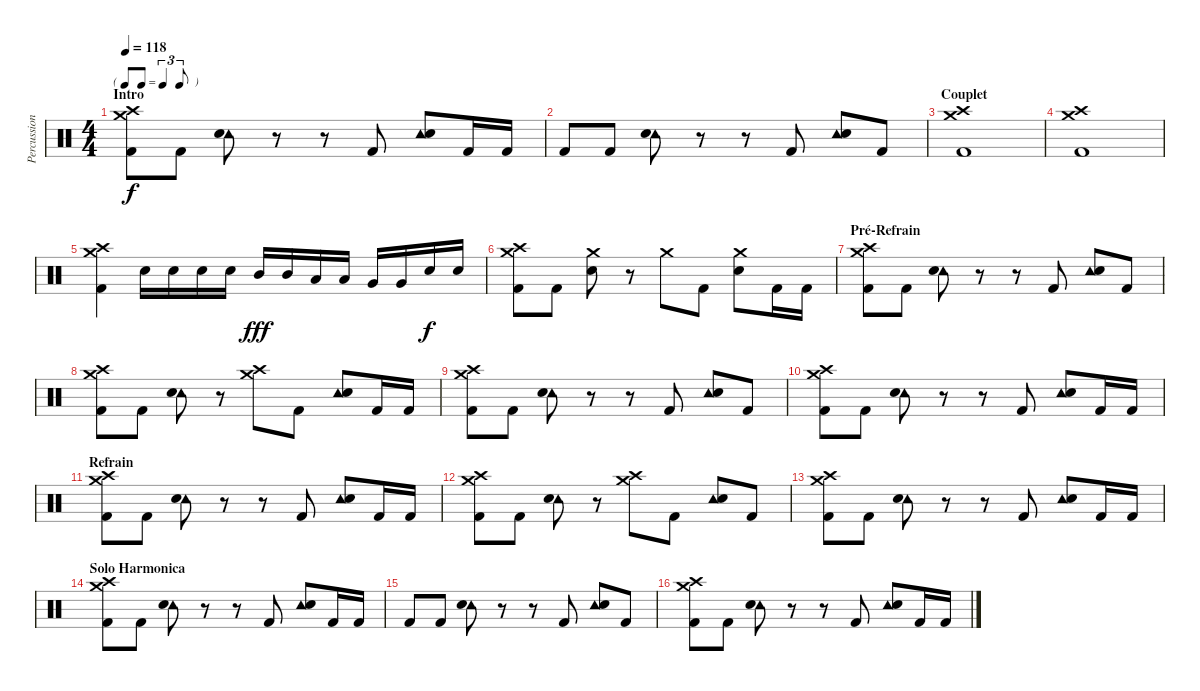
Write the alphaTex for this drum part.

\track ("Percussions" "Percussion") {instrument percussion}
\staff {score}
\articulation defaults
\ts (4 4)
\tf triplet8th
\section ("" "Intro")
\tempo 118
\clef neutral
\ks c
("Crash medium (hit)" "Crash high (hit)" "Kick (hit) 2").8{dy f} "Kick (hit) 2".8 ("Tambourine (hit)" "Snare (hit) 2").8 r.8 r.8 "Kick (hit) 2".8 ("Tambourine (hit)" "Snare (hit) 2").8 "Kick (hit) 2".16 "Kick (hit) 2".16 |
"Kick (hit) 2".8 "Kick (hit) 2".8 ("Tambourine (hit)" "Snare (hit) 2").8 r.8 r.8 "Kick (hit) 2".8 ("Tambourine (hit)" "Snare (hit) 2").8 "Kick (hit) 2".8 |
\section ("" "Couplet")
("Crash medium (hit)" "Crash high (hit)" "Kick (hit) 2").1 |
("Crash medium (hit)" "Crash high (hit)" "Kick (hit) 2").1 |
("Crash medium (hit)" "Crash high (hit)" "Kick (hit) 2").4 "Snare (hit) 2".16 "Snare (hit) 2".16 "Snare (hit) 2".16 "Snare (hit) 2".16 "Mid Tom (hit)".16{dy fff} "Mid Tom (hit)".16 "Low Tom (hit)".16 "Low Tom (hit)".16 "Very Low Tom (hit)".16 "Very Low Tom (hit)".16 "Snare (hit) 2".16{dy f} "Snare (hit) 2".16 |
("Crash medium (hit)" "Crash high (hit)" "Kick (hit) 2").8 "Kick (hit) 2".8 ("Crash medium (hit)" "Snare (hit) 2").8 r.8 "Crash medium (hit)".8 "Kick (hit) 2".8 ("Crash medium (hit)" "Snare (hit) 2").8 "Kick (hit) 2".16 "Kick (hit) 2".16 |
\section ("" "Pré-Refrain")
("Crash medium (hit)" "Crash high (hit)" "Kick (hit) 2").8 "Kick (hit) 2".8 ("Tambourine (hit)" "Snare (hit) 2").8 r.8 r.8 "Kick (hit) 2".8 ("Tambourine (hit)" "Snare (hit) 2").8 "Kick (hit) 2".8 |
("Crash medium (hit)" "Crash high (hit)" "Kick (hit) 2").8 "Kick (hit) 2".8 ("Tambourine (hit)" "Snare (hit) 2").8 r.8 ("Crash medium (hit)" "Crash high (hit)").8 "Kick (hit) 2".8 ("Tambourine (hit)" "Snare (hit) 2").8 "Kick (hit) 2".16 "Kick (hit) 2".16 |
("Crash medium (hit)" "Crash high (hit)" "Kick (hit) 2").8 "Kick (hit) 2".8 ("Tambourine (hit)" "Snare (hit) 2").8 r.8 r.8 "Kick (hit) 2".8 ("Tambourine (hit)" "Snare (hit) 2").8 "Kick (hit) 2".8 |
("Crash medium (hit)" "Crash high (hit)" "Kick (hit) 2").8 "Kick (hit) 2".8 ("Tambourine (hit)" "Snare (hit) 2").8 r.8 r.8 "Kick (hit) 2".8 ("Tambourine (hit)" "Snare (hit) 2").8 "Kick (hit) 2".16 "Kick (hit) 2".16 |
\section ("" "Refrain")
("Crash medium (hit)" "Crash high (hit)" "Kick (hit) 2").8 "Kick (hit) 2".8 ("Tambourine (hit)" "Snare (hit) 2").8 r.8 r.8 "Kick (hit) 2".8 ("Tambourine (hit)" "Snare (hit) 2").8 "Kick (hit) 2".16 "Kick (hit) 2".16 |
("Crash medium (hit)" "Crash high (hit)" "Kick (hit) 2").8 "Kick (hit) 2".8 ("Tambourine (hit)" "Snare (hit) 2").8 r.8 ("Crash medium (hit)" "Crash high (hit)").8 "Kick (hit) 2".8 ("Tambourine (hit)" "Snare (hit) 2").8 "Kick (hit) 2".8 |
("Crash medium (hit)" "Crash high (hit)" "Kick (hit) 2").8 "Kick (hit) 2".8 ("Tambourine (hit)" "Snare (hit) 2").8 r.8 r.8 "Kick (hit) 2".8 ("Tambourine (hit)" "Snare (hit) 2").8 "Kick (hit) 2".16 "Kick (hit) 2".16 |
\section ("" "Solo Harmonica")
("Crash medium (hit)" "Crash high (hit)" "Kick (hit) 2").8 "Kick (hit) 2".8 ("Tambourine (hit)" "Snare (hit) 2").8 r.8 r.8 "Kick (hit) 2".8 ("Tambourine (hit)" "Snare (hit) 2").8 "Kick (hit) 2".16 "Kick (hit) 2".16 |
"Kick (hit) 2".8 "Kick (hit) 2".8 ("Tambourine (hit)" "Snare (hit) 2").8 r.8 r.8 "Kick (hit) 2".8 ("Tambourine (hit)" "Snare (hit) 2").8 "Kick (hit) 2".8 |
("Crash medium (hit)" "Crash high (hit)" "Kick (hit) 2").8 "Kick (hit) 2".8 ("Tambourine (hit)" "Snare (hit) 2").8 r.8 r.8 "Kick (hit) 2".8 ("Tambourine (hit)" "Snare (hit) 2").8 "Kick (hit) 2".16 "Kick (hit) 2".16
